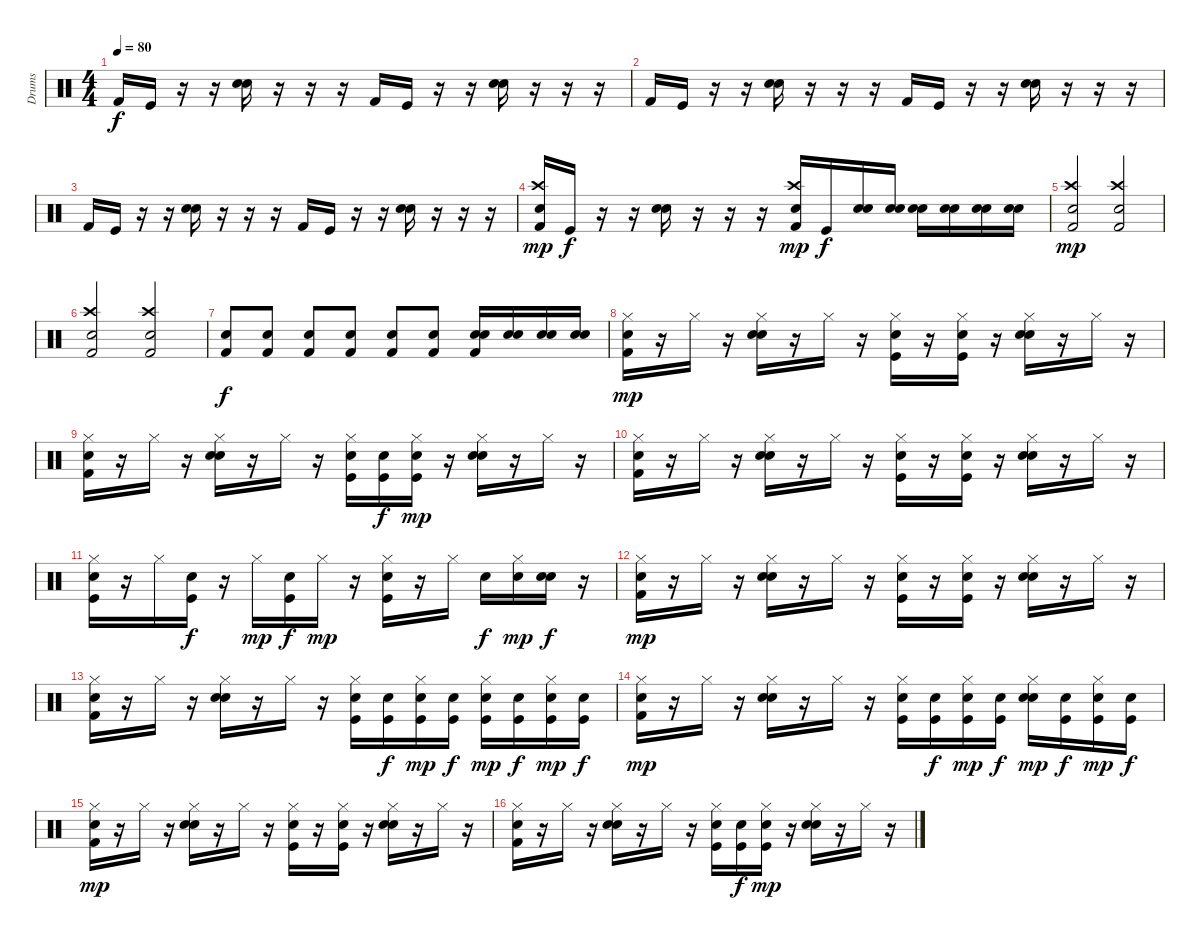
\track ("Drums" "Drums") {instrument percussion}
\staff {score}
\articulation defaults
\ts (4 4)
\tempo 80
\clef neutral
\ks c "Kick (hit) 2".16{dy f} "Kick (hit)".16
r.16 r.16 ("Electric Snare (hit)" "Electric Snare (hit)").16 r.16 r.16 r.16 "Kick (hit) 2".16 "Kick (hit)".16 r.16 r.16 ("Electric Snare (hit)" "Electric Snare (hit)").16 r.16 r.16 r.16 |
"Kick (hit) 2".16 "Kick (hit)".16 r.16 r.16 ("Electric Snare (hit)" "Electric Snare (hit)").16 r.16 r.16 r.16 "Kick (hit) 2".16 "Kick (hit)".16 r.16 r.16 ("Electric Snare (hit)" "Electric Snare (hit)").16 r.16 r.16 r.16 |
"Kick (hit) 2".16 "Kick (hit)".16 r.16 r.16 ("Electric Snare (hit)" "Electric Snare (hit)").16 r.16 r.16 r.16 "Kick (hit) 2".16 "Kick (hit)".16 r.16 r.16 ("Electric Snare (hit)" "Electric Snare (hit)").16 r.16 r.16 r.16 |
("Crash high (hit)" "Kick (hit) 2" "Snare (hit) 2").16{dy mp} "Kick (hit)".16{dy f} r.16 r.16 ("Electric Snare (hit)" "Electric Snare (hit)").16 r.16 r.16 r.16 ("Crash high (hit)" "Kick (hit) 2" "Snare (hit) 2").16{dy mp} "Kick (hit)".16{dy f} ("Electric Snare (hit)" "Electric Snare (hit)").16 ("Electric Snare (hit)" "Electric Snare (hit)").16 ("Electric Snare (hit)" "Electric Snare (hit)").16 ("Electric Snare (hit)" "Electric Snare (hit)").16 ("Electric Snare (hit)" "Electric Snare (hit)").16 ("Electric Snare (hit)" "Electric Snare (hit)").16 |
("Crash high (hit)" "Kick (hit) 2" "Snare (hit) 2").2{dy mp} ("Crash high (hit)" "Kick (hit) 2" "Snare (hit) 2").2 |
("Crash high (hit)" "Kick (hit) 2" "Snare (hit) 2").2 ("Crash high (hit)" "Kick (hit) 2" "Snare (hit) 2").2 |
("Kick (hit) 2" "Electric Snare (hit)").8{dy f} ("Kick (hit) 2" "Electric Snare (hit)").8 ("Kick (hit) 2" "Electric Snare (hit)").8 ("Kick (hit) 2" "Electric Snare (hit)").8 ("Kick (hit) 2" "Electric Snare (hit)").8 ("Kick (hit) 2" "Electric Snare (hit)").8 ("Kick (hit) 2" "Electric Snare (hit)" "Electric Snare (hit)").16 ("Snare (hit) 2" "Snare (hit) 2").16 ("Electric Snare (hit)" "Electric Snare (hit)").16 ("Snare (hit) 2" "Snare (hit) 2").16 |
("Hi-Hat (closed)" "Kick (hit) 2" "Snare (hit) 2").16{dy mp} r.16 "Hi-Hat (closed)".16 r.16 ("Hi-Hat (closed)" "Electric Snare (hit)" "Electric Snare (hit)").16 r.16 "Hi-Hat (closed)".16 r.16 ("Hi-Hat (closed)" "Kick (hit)" "Snare (hit) 2").16 r.16 ("Hi-Hat (closed)" "Kick (hit)" "Snare (hit) 2").16 r.16 ("Hi-Hat (closed)" "Electric Snare (hit)" "Electric Snare (hit)").16 r.16 "Hi-Hat (closed)".16 r.16 |
("Hi-Hat (closed)" "Kick (hit) 2" "Snare (hit) 2").16 r.16 "Hi-Hat (closed)".16 r.16 ("Hi-Hat (closed)" "Electric Snare (hit)" "Electric Snare (hit)").16 r.16 "Hi-Hat (closed)".16 r.16 ("Hi-Hat (closed)" "Kick (hit)" "Snare (hit) 2").16 ("Kick (hit)" "Snare (hit) 2").16{dy f} ("Hi-Hat (closed)" "Kick (hit)" "Snare (hit) 2").16{dy mp} r.16 ("Hi-Hat (closed)" "Electric Snare (hit)" "Electric Snare (hit)").16 r.16 "Hi-Hat (closed)".16 r.16 |
("Hi-Hat (closed)" "Kick (hit) 2" "Snare (hit) 2").16 r.16 "Hi-Hat (closed)".16 r.16 ("Hi-Hat (closed)" "Electric Snare (hit)" "Electric Snare (hit)").16 r.16 "Hi-Hat (closed)".16 r.16 ("Hi-Hat (closed)" "Kick (hit)" "Snare (hit) 2").16 r.16 ("Hi-Hat (closed)" "Kick (hit)" "Snare (hit) 2").16 r.16 ("Hi-Hat (closed)" "Electric Snare (hit)" "Electric Snare (hit)").16 r.16 "Hi-Hat (closed)".16 r.16 |
("Hi-Hat (closed)" "Electric Snare (hit)" "Kick (hit)").16 r.16 "Hi-Hat (closed)".16 ("Electric Snare (hit)" "Kick (hit)").16{dy f} r.16 "Hi-Hat (closed)".16{dy mp} ("Electric Snare (hit)" "Kick (hit)").16{dy f} "Hi-Hat (closed)".16{dy mp} r.16 ("Hi-Hat (closed)" "Electric Snare (hit)" "Kick (hit)").16 r.16 "Hi-Hat (closed)".16 "Snare (hit) 2".16{dy f} ("Hi-Hat (closed)" "Snare (hit) 2").16{dy mp} ("Electric Snare (hit)" "Electric Snare (hit)").16{dy f} r.16 |
("Hi-Hat (closed)" "Kick (hit) 2" "Snare (hit) 2").16{dy mp} r.16 "Hi-Hat (closed)".16 r.16 ("Hi-Hat (closed)" "Electric Snare (hit)" "Electric Snare (hit)").16 r.16 "Hi-Hat (closed)".16 r.16 ("Hi-Hat (closed)" "Kick (hit)" "Snare (hit) 2").16 r.16 ("Hi-Hat (closed)" "Kick (hit)" "Snare (hit) 2").16 r.16 ("Hi-Hat (closed)" "Electric Snare (hit)" "Electric Snare (hit)").16 r.16 "Hi-Hat (closed)".16 r.16 |
("Hi-Hat (closed)" "Kick (hit) 2" "Snare (hit) 2").16 r.16 "Hi-Hat (closed)".16 r.16 ("Hi-Hat (closed)" "Electric Snare (hit)" "Electric Snare (hit)").16 r.16 "Hi-Hat (closed)".16 r.16 ("Hi-Hat (closed)" "Kick (hit)" "Snare (hit) 2").16 ("Kick (hit)" "Snare (hit) 2").16{dy f} ("Hi-Hat (closed)" "Kick (hit)" "Snare (hit) 2").16{dy mp} ("Kick (hit)" "Snare (hit) 2").16{dy f} ("Hi-Hat (closed)" "Kick (hit)" "Snare (hit) 2").16{dy mp} ("Kick (hit)" "Snare (hit) 2").16{dy f} ("Hi-Hat (closed)" "Kick (hit)" "Snare (hit) 2").16{dy mp} ("Kick (hit)" "Snare (hit) 2").16{dy f} |
("Hi-Hat (closed)" "Kick (hit) 2" "Snare (hit) 2").16{dy mp} r.16 "Hi-Hat (closed)".16 r.16 ("Hi-Hat (closed)" "Electric Snare (hit)" "Electric Snare (hit)").16 r.16 "Hi-Hat (closed)".16 r.16 ("Hi-Hat (closed)" "Kick (hit)" "Electric Snare (hit)").16 ("Kick (hit)" "Electric Snare (hit)").16{dy f} ("Hi-Hat (closed)" "Kick (hit)" "Electric Snare (hit)").16{dy mp} ("Kick (hit)" "Electric Snare (hit)").16{dy f} ("Hi-Hat (closed)" "Electric Snare (hit)" "Electric Snare (hit)").16{dy mp} ("Kick (hit)" "Electric Snare (hit)").16{dy f} ("Hi-Hat (closed)" "Kick (hit)" "Electric Snare (hit)").16{dy mp} ("Kick (hit)" "Electric Snare (hit)").16{dy f} |
("Hi-Hat (closed)" "Kick (hit) 2" "Snare (hit) 2").16{dy mp} r.16 "Hi-Hat (closed)".16 r.16 ("Hi-Hat (closed)" "Electric Snare (hit)" "Electric Snare (hit)").16 r.16 "Hi-Hat (closed)".16 r.16 ("Hi-Hat (closed)" "Kick (hit)" "Snare (hit) 2").16 r.16 ("Hi-Hat (closed)" "Kick (hit)" "Snare (hit) 2").16 r.16 ("Hi-Hat (closed)" "Electric Snare (hit)" "Electric Snare (hit)").16 r.16 "Hi-Hat (closed)".16 r.16 |
("Hi-Hat (closed)" "Kick (hit) 2" "Snare (hit) 2").16 r.16 "Hi-Hat (closed)".16 r.16 ("Hi-Hat (closed)" "Electric Snare (hit)" "Electric Snare (hit)").16 r.16 "Hi-Hat (closed)".16 r.16 ("Hi-Hat (closed)" "Kick (hit)" "Snare (hit) 2").16 ("Kick (hit)" "Snare (hit) 2").16{dy f} ("Hi-Hat (closed)" "Kick (hit)" "Snare (hit) 2").16{dy mp} r.16 ("Hi-Hat (closed)" "Electric Snare (hit)" "Electric Snare (hit)").16 r.16 "Hi-Hat (closed)".16 r.16
